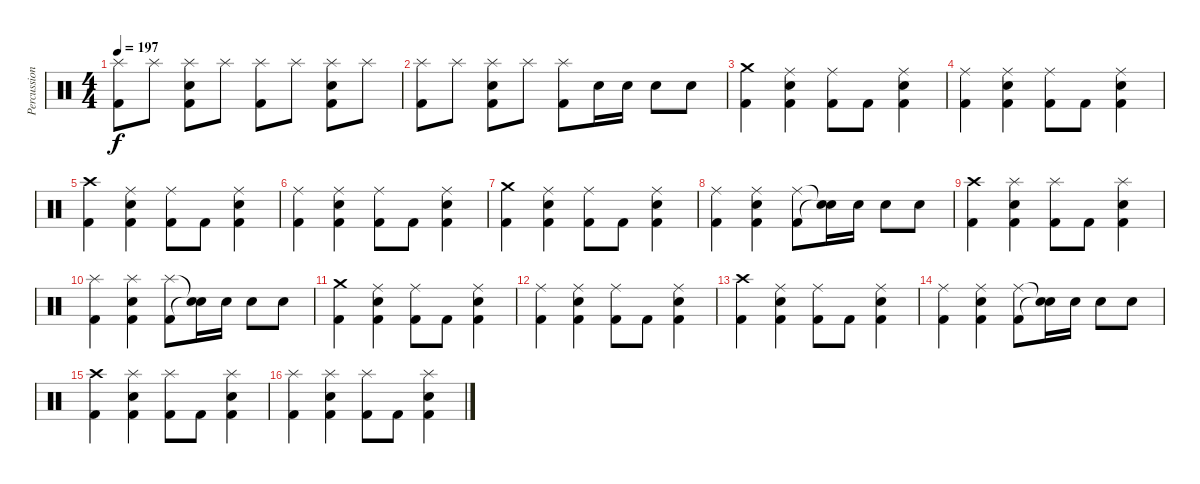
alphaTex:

\track ("Percussion" "Percussion") {instrument percussion}
\staff {score}
\articulation defaults
\ts (4 4)
\tempo 197
\clef neutral
\ks c
("Splash (hit)" "Kick (hit) 2").8{dy f} "Splash (hit)".8 ("Snare (hit) 2" "Splash (hit)" "Kick (hit) 2").8 "Splash (hit)".8 ("Splash (hit)" "Kick (hit) 2").8 "Splash (hit)".8 ("Snare (hit) 2" "Splash (hit)" "Kick (hit) 2").8 "Splash (hit)".8 |
("Splash (hit)" "Kick (hit) 2").8 "Splash (hit)".8 ("Snare (hit) 2" "Splash (hit)" "Kick (hit) 2").8 "Splash (hit)".8 ("Splash (hit)" "Kick (hit) 2").8 "Snare (hit) 2".16 "Snare (hit) 2".16 "Snare (hit) 2".8 "Snare (hit) 2".8 |
("Crash medium (hit)" "Kick (hit) 2").4 ("Snare (hit) 2" "Ride (middle)" "Kick (hit) 2").4 ("Ride (middle)" "Kick (hit) 2").8 "Kick (hit) 2".8 ("Snare (hit) 2" "Ride (middle)" "Kick (hit) 2").4 |
("Ride (middle)" "Kick (hit) 2").4 ("Snare (hit) 2" "Ride (middle)" "Kick (hit) 2").4 ("Ride (middle)" "Kick (hit) 2").8 "Kick (hit) 2".8 ("Snare (hit) 2" "Ride (middle)" "Kick (hit) 2").4 |
("Crash high (hit)" "Kick (hit) 2").4 ("Snare (hit) 2" "Ride (middle)" "Kick (hit) 2").4 ("Ride (middle)" "Kick (hit) 2").8 "Kick (hit) 2".8 ("Snare (hit) 2" "Ride (middle)" "Kick (hit) 2").4 |
("Ride (middle)" "Kick (hit) 2").4 ("Snare (hit) 2" "Ride (middle)" "Kick (hit) 2").4 ("Ride (middle)" "Kick (hit) 2").8 "Kick (hit) 2".8 ("Snare (hit) 2" "Ride (middle)" "Kick (hit) 2").4 |
("Crash medium (hit)" "Kick (hit) 2").4 ("Snare (hit) 2" "Ride (middle)" "Kick (hit) 2").4 ("Ride (middle)" "Kick (hit) 2").8 "Kick (hit) 2".8 ("Snare (hit) 2" "Ride (middle)" "Kick (hit) 2").4 |
("Ride (middle)" "Kick (hit) 2").4 ("Snare (hit) 2" "Ride (middle)" "Kick (hit) 2").4 ("Ride (middle)" "Kick (hit) 2").8 ("Snare (hit)"{t} "Snare (hit)"{t}).16 "Snare (hit) 2".16 "Snare (hit) 2".8 "Snare (hit) 2".8 |
("Crash high (hit)" "Kick (hit) 2").4 ("Snare (hit) 2" "Splash (hit)" "Kick (hit) 2").4 ("Splash (hit)" "Kick (hit) 2").8 "Kick (hit) 2".8 ("Snare (hit) 2" "Splash (hit)" "Kick (hit) 2").4 |
("Splash (hit)" "Kick (hit) 2").4 ("Snare (hit) 2" "Splash (hit)" "Kick (hit) 2").4 ("Splash (hit)" "Kick (hit) 2").8 ("Snare (hit)"{t} "Snare (hit)"{t}).16 "Snare (hit) 2".16 "Snare (hit) 2".8 "Snare (hit) 2".8 |
("Crash medium (hit)" "Kick (hit) 2").4 ("Snare (hit) 2" "Ride (middle)" "Kick (hit) 2").4 ("Ride (middle)" "Kick (hit) 2").8 "Kick (hit) 2".8 ("Snare (hit) 2" "Ride (middle)" "Kick (hit) 2").4 |
("Ride (middle)" "Kick (hit) 2").4 ("Snare (hit) 2" "Ride (middle)" "Kick (hit) 2").4 ("Ride (middle)" "Kick (hit) 2").8 "Kick (hit) 2".8 ("Snare (hit) 2" "Ride (middle)" "Kick (hit) 2").4 |
("Crash high (hit)" "Kick (hit) 2").4 ("Snare (hit) 2" "Ride (middle)" "Kick (hit) 2").4 ("Ride (middle)" "Kick (hit) 2").8 "Kick (hit) 2".8 ("Snare (hit) 2" "Ride (middle)" "Kick (hit) 2").4 |
("Ride (middle)" "Kick (hit) 2").4 ("Snare (hit) 2" "Ride (middle)" "Kick (hit) 2").4 ("Ride (middle)" "Kick (hit) 2").8 ("Snare (hit)"{t} "Snare (hit)"{t}).16 "Snare (hit) 2".16 "Snare (hit) 2".8 "Snare (hit) 2".8 |
("Crash high (hit)" "Kick (hit) 2").4 ("Snare (hit) 2" "Splash (hit)" "Kick (hit) 2").4 ("Splash (hit)" "Kick (hit) 2").8 "Kick (hit) 2".8 ("Snare (hit) 2" "Splash (hit)" "Kick (hit) 2").4 |
("Splash (hit)" "Kick (hit) 2").4 ("Snare (hit) 2" "Splash (hit)" "Kick (hit) 2").4 ("Splash (hit)" "Kick (hit) 2").8 "Kick (hit) 2".8 ("Snare (hit) 2" "Splash (hit)" "Kick (hit) 2").4
